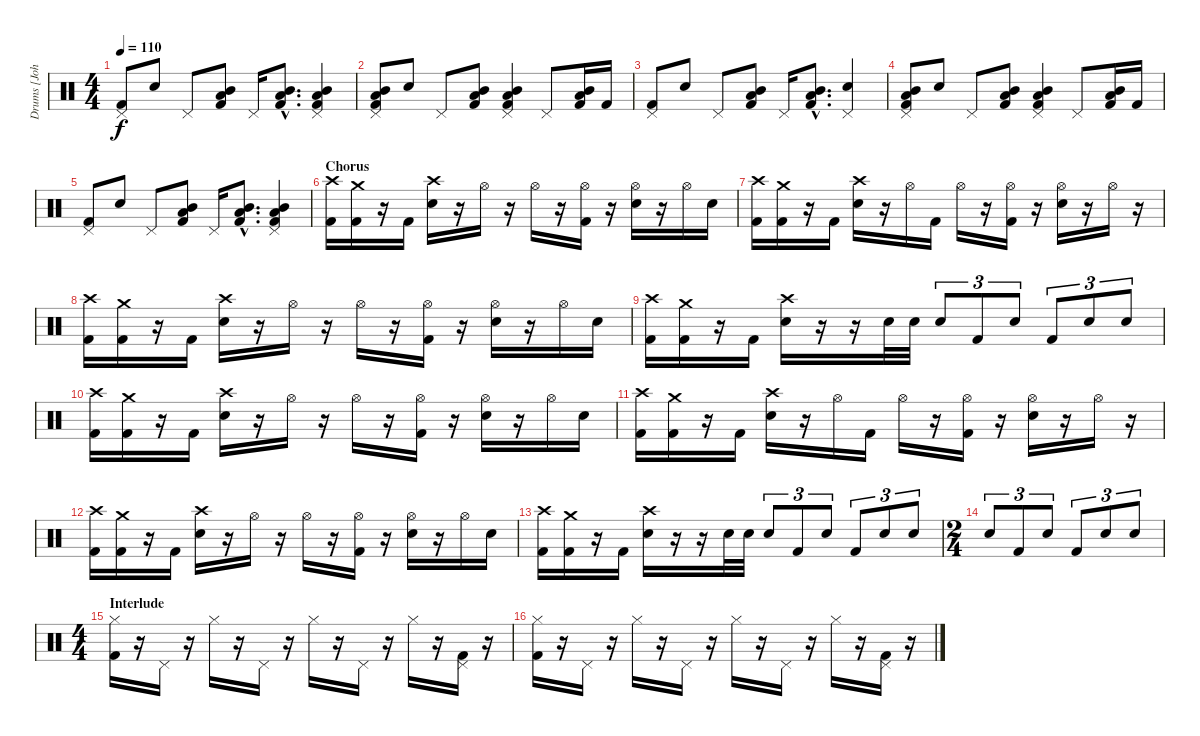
\track ("Drums [John Otto]" "Drums [Joh") {instrument percussion}
\staff {score}
\articulation defaults
\ts (4 4)
\tempo 110
\clef neutral
\ks c
("Pedal Hi-Hat (hit)" "Kick (hit) 2").8{dy f} "Electric Snare (hit)".8 "Pedal Hi-Hat (hit)".8 ("Low Tom (hit)" "Mid Tom (hit)" "Kick (hit) 2").8 "Pedal Hi-Hat (hit)".16 ("Low Tom (hit)"{hac} "Mid Tom (hit)"{hac} "Kick (hit) 2"{hac}).8{d} ("Pedal Hi-Hat (hit)" "Low Tom (hit)" "Mid Tom (hit)" "Kick (hit) 2").4 |
("Pedal Hi-Hat (hit)" "Low Tom (hit)" "Mid Tom (hit)" "Kick (hit) 2").8 "Electric Snare (hit)".8 "Pedal Hi-Hat (hit)".8 ("Low Tom (hit)" "Mid Tom (hit)" "Kick (hit) 2").8 ("Pedal Hi-Hat (hit)" "Low Tom (hit)" "Mid Tom (hit)" "Kick (hit) 2").4 "Pedal Hi-Hat (hit)".8 ("Low Tom (hit)" "Mid Tom (hit)" "Kick (hit) 2").16 "Kick (hit) 2".16 |
("Pedal Hi-Hat (hit)" "Kick (hit) 2").8 "Electric Snare (hit)".8 "Pedal Hi-Hat (hit)".8 ("Low Tom (hit)" "Mid Tom (hit)" "Kick (hit) 2").8 "Pedal Hi-Hat (hit)".16 ("Low Tom (hit)"{hac} "Mid Tom (hit)"{hac} "Kick (hit) 2"{hac}).8{d} ("Pedal Hi-Hat (hit)" "Electric Snare (hit)").4 |
("Pedal Hi-Hat (hit)" "Low Tom (hit)" "Mid Tom (hit)" "Kick (hit) 2").8 "Electric Snare (hit)".8 "Pedal Hi-Hat (hit)".8 ("Low Tom (hit)" "Mid Tom (hit)" "Kick (hit) 2").8 ("Pedal Hi-Hat (hit)" "Low Tom (hit)" "Mid Tom (hit)" "Kick (hit) 2").4 "Pedal Hi-Hat (hit)".8 ("Low Tom (hit)" "Mid Tom (hit)" "Kick (hit) 2").16 "Kick (hit) 2".16 |
("Pedal Hi-Hat (hit)" "Kick (hit) 2").8 "Electric Snare (hit)".8 "Pedal Hi-Hat (hit)".8 ("Low Tom (hit)" "Mid Tom (hit)" "Kick (hit) 2").8 "Pedal Hi-Hat (hit)".16 ("Low Tom (hit)"{hac} "Mid Tom (hit)"{hac} "Kick (hit) 2"{hac}).8{d} ("Pedal Hi-Hat (hit)" "Low Tom (hit)" "Mid Tom (hit)" "Kick (hit) 2").4 |
\section ("" "Chorus")
("Crash high (hit)" "Kick (hit) 2").16 ("Crash medium (hit)" "Kick (hit) 2").16 r.16 "Kick (hit) 2".16 ("Crash high (hit)" "Electric Snare (hit)").16 r.16 "Hi-Hat (open)".16 r.16 "Hi-Hat (open)".16 r.16 ("Hi-Hat (open)" "Kick (hit) 2").16 r.16 ("Hi-Hat (open)" "Electric Snare (hit)").16 r.16 "Hi-Hat (open)".16 "Electric Snare (hit)".16 |
("Crash high (hit)" "Kick (hit) 2").16 ("Crash medium (hit)" "Kick (hit) 2").16 r.16 "Kick (hit) 2".16 ("Crash high (hit)" "Electric Snare (hit)").16 r.16 "Hi-Hat (open)".16 "Kick (hit) 2".16 "Hi-Hat (open)".16 r.16 ("Hi-Hat (open)" "Kick (hit) 2").16 r.16 ("Hi-Hat (open)" "Electric Snare (hit)").16 r.16 "Hi-Hat (open)".16 r.16 |
("Crash high (hit)" "Kick (hit) 2").16 ("Crash medium (hit)" "Kick (hit) 2").16 r.16 "Kick (hit) 2".16 ("Crash high (hit)" "Electric Snare (hit)").16 r.16 "Hi-Hat (open)".16 r.16 "Hi-Hat (open)".16 r.16 ("Hi-Hat (open)" "Kick (hit) 2").16 r.16 ("Hi-Hat (open)" "Electric Snare (hit)").16 r.16 "Hi-Hat (open)".16 "Electric Snare (hit)".16 |
("Crash high (hit)" "Kick (hit) 2").16 ("Crash medium (hit)" "Kick (hit) 2").16 r.16 "Kick (hit) 2".16 ("Crash high (hit)" "Electric Snare (hit)").16 r.16 r.16 "Electric Snare (hit)".32 "Electric Snare (hit)".32 "Electric Snare (hit)".8{tu (3 2)} "Kick (hit) 2".8{tu (3 2)} "Electric Snare (hit)".8{tu (3 2)} "Kick (hit) 2".8{tu (3 2)} "Electric Snare (hit)".8{tu (3 2)} "Electric Snare (hit)".8{tu (3 2)} |
("Crash high (hit)" "Kick (hit) 2").16 ("Crash medium (hit)" "Kick (hit) 2").16 r.16 "Kick (hit) 2".16 ("Crash high (hit)" "Electric Snare (hit)").16 r.16 "Hi-Hat (open)".16 r.16 "Hi-Hat (open)".16 r.16 ("Hi-Hat (open)" "Kick (hit) 2").16 r.16 ("Hi-Hat (open)" "Electric Snare (hit)").16 r.16 "Hi-Hat (open)".16 "Electric Snare (hit)".16 |
("Crash high (hit)" "Kick (hit) 2").16 ("Crash medium (hit)" "Kick (hit) 2").16 r.16 "Kick (hit) 2".16 ("Crash high (hit)" "Electric Snare (hit)").16 r.16 "Hi-Hat (open)".16 "Kick (hit) 2".16 "Hi-Hat (open)".16 r.16 ("Hi-Hat (open)" "Kick (hit) 2").16 r.16 ("Hi-Hat (open)" "Electric Snare (hit)").16 r.16 "Hi-Hat (open)".16 r.16 |
("Crash high (hit)" "Kick (hit) 2").16 ("Crash medium (hit)" "Kick (hit) 2").16 r.16 "Kick (hit) 2".16 ("Crash high (hit)" "Electric Snare (hit)").16 r.16 "Hi-Hat (open)".16 r.16 "Hi-Hat (open)".16 r.16 ("Hi-Hat (open)" "Kick (hit) 2").16 r.16 ("Hi-Hat (open)" "Electric Snare (hit)").16 r.16 "Hi-Hat (open)".16 "Electric Snare (hit)".16 |
("Crash high (hit)" "Kick (hit) 2").16 ("Crash medium (hit)" "Kick (hit) 2").16 r.16 "Kick (hit) 2".16 ("Crash high (hit)" "Electric Snare (hit)").16 r.16 r.16 "Electric Snare (hit)".32 "Electric Snare (hit)".32 "Electric Snare (hit)".8{tu (3 2)} "Kick (hit) 2".8{tu (3 2)} "Electric Snare (hit)".8{tu (3 2)} "Kick (hit) 2".8{tu (3 2)} "Electric Snare (hit)".8{tu (3 2)} "Electric Snare (hit)".8{tu (3 2)} |
\ts (2 4)
"Electric Snare (hit)".8{tu (3 2)} "Kick (hit) 2".8{tu (3 2)} "Electric Snare (hit)".8{tu (3 2)} "Kick (hit) 2".8{tu (3 2)} "Electric Snare (hit)".8{tu (3 2)} "Electric Snare (hit)".8{tu (3 2)} |
\ts (4 4)
\section ("" "Interlude")
("Hi-Hat (closed)" "Kick (hit) 2").16 r.16 "Pedal Hi-Hat (hit)".16 r.16 "Hi-Hat (closed)".16 r.16 "Pedal Hi-Hat (hit)".16 r.16 "Hi-Hat (closed)".16 r.16 "Pedal Hi-Hat (hit)".16 r.16 "Hi-Hat (closed)".16 r.16 ("Pedal Hi-Hat (hit)" "Kick (hit) 2").16 r.16 |
("Hi-Hat (closed)" "Kick (hit) 2").16 r.16 "Pedal Hi-Hat (hit)".16 r.16 "Hi-Hat (closed)".16 r.16 "Pedal Hi-Hat (hit)".16 r.16 "Hi-Hat (closed)".16 r.16 "Pedal Hi-Hat (hit)".16 r.16 "Hi-Hat (closed)".16 r.16 ("Pedal Hi-Hat (hit)" "Kick (hit) 2").16 r.16
